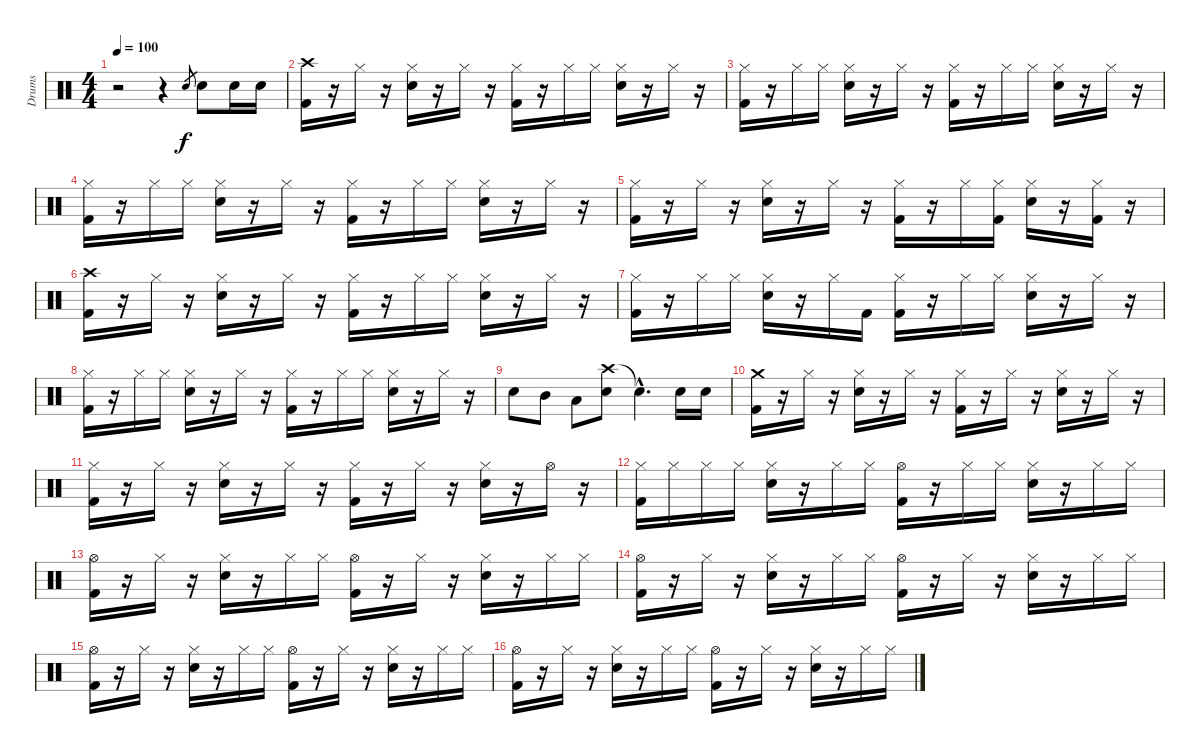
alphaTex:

\track ("Drums" "Drums") {instrument percussion}
\staff {score}
\articulation defaults
\ts (4 4)
\tempo 100
\clef neutral
\ks c
r.2{dy f} r.4 "Snare (hit) 2".8{gr} "Snare (hit) 2".8 "Snare (hit) 2".16 "Snare (hit) 2".16 |
("Crash high (hit)" "Kick (hit) 2").16 r.16 "Hi-Hat (closed)".16 r.16 ("Hi-Hat (closed)" "Snare (hit) 2").16 r.16 "Hi-Hat (closed)".16 r.16 ("Hi-Hat (closed)" "Kick (hit) 2").16 r.16 "Hi-Hat (closed)".16 "Hi-Hat (closed)".16 ("Hi-Hat (closed)" "Snare (hit) 2").16 r.16 "Hi-Hat (closed)".16 r.16 |
("Hi-Hat (closed)" "Kick (hit) 2").16 r.16 "Hi-Hat (closed)".16 "Hi-Hat (closed)".16 ("Hi-Hat (closed)" "Snare (hit) 2").16 r.16 "Hi-Hat (closed)".16 r.16 ("Hi-Hat (closed)" "Kick (hit) 2").16 r.16 "Hi-Hat (closed)".16 "Hi-Hat (closed)".16 ("Hi-Hat (closed)" "Snare (hit) 2").16 r.16 "Hi-Hat (closed)".16 r.16 |
("Hi-Hat (closed)" "Kick (hit) 2").16 r.16 "Hi-Hat (closed)".16 "Hi-Hat (closed)".16 ("Hi-Hat (closed)" "Snare (hit) 2").16 r.16 "Hi-Hat (closed)".16 r.16 ("Hi-Hat (closed)" "Kick (hit) 2").16 r.16 "Hi-Hat (closed)".16 "Hi-Hat (closed)".16 ("Hi-Hat (closed)" "Snare (hit) 2").16 r.16 "Hi-Hat (closed)".16 r.16 |
("Hi-Hat (closed)" "Kick (hit) 2").16 r.16 "Hi-Hat (closed)".16 r.16 ("Hi-Hat (closed)" "Snare (hit) 2").16 r.16 "Hi-Hat (closed)".16 r.16 ("Hi-Hat (closed)" "Kick (hit) 2").16 r.16 "Hi-Hat (closed)".16 ("Hi-Hat (closed)" "Kick (hit) 2").16 ("Hi-Hat (closed)" "Snare (hit) 2").16 r.16 ("Hi-Hat (closed)" "Kick (hit) 2").16 r.16 |
("Crash high (hit)" "Kick (hit) 2").16 r.16 "Hi-Hat (closed)".16 r.16 ("Hi-Hat (closed)" "Snare (hit) 2").16 r.16 "Hi-Hat (closed)".16 r.16 ("Hi-Hat (closed)" "Kick (hit) 2").16 r.16 "Hi-Hat (closed)".16 "Hi-Hat (closed)".16 ("Hi-Hat (closed)" "Snare (hit) 2").16 r.16 "Hi-Hat (closed)".16 r.16 |
("Hi-Hat (closed)" "Kick (hit) 2").16 r.16 "Hi-Hat (closed)".16 "Hi-Hat (closed)".16 ("Hi-Hat (closed)" "Snare (hit) 2").16 r.16 "Hi-Hat (closed)".16 "Kick (hit) 2".16 ("Hi-Hat (closed)" "Kick (hit) 2").16 r.16 "Hi-Hat (closed)".16 "Hi-Hat (closed)".16 ("Hi-Hat (closed)" "Snare (hit) 2").16 r.16 "Hi-Hat (closed)".16 r.16 |
("Hi-Hat (closed)" "Kick (hit) 2").16 r.16 "Hi-Hat (closed)".16 "Hi-Hat (closed)".16 ("Hi-Hat (closed)" "Snare (hit) 2").16 r.16 "Hi-Hat (closed)".16 r.16 ("Hi-Hat (closed)" "Kick (hit) 2").16 r.16 "Hi-Hat (closed)".16 "Hi-Hat (closed)".16 ("Hi-Hat (closed)" "Snare (hit) 2").16 r.16 "Hi-Hat (closed)".16 r.16 |
"Snare (hit) 2".8 "Mid Tom (hit)".8 "Low Tom (hit)".8 ("Crash high (hit)" "Snare (hit) 2").8 "Snare (hit)"{hac t}.4{d} "Snare (hit) 2".16 "Snare (hit) 2".16 |
("Crash medium (hit)" "Kick (hit) 2").16 r.16 "Hi-Hat (closed)".16 r.16 ("Hi-Hat (closed)" "Snare (hit) 2").16 r.16 "Hi-Hat (closed)".16 r.16 ("Hi-Hat (closed)" "Kick (hit) 2").16 r.16 "Hi-Hat (closed)".16 r.16 ("Hi-Hat (closed)" "Snare (hit) 2").16 r.16 "Hi-Hat (closed)".16 r.16 |
("Hi-Hat (closed)" "Kick (hit) 2").16 r.16 "Hi-Hat (closed)".16 r.16 ("Hi-Hat (closed)" "Snare (hit) 2").16 r.16 "Hi-Hat (closed)".16 r.16 ("Hi-Hat (closed)" "Kick (hit) 2").16 r.16 "Hi-Hat (closed)".16 r.16 ("Hi-Hat (closed)" "Snare (hit) 2").16 r.16 "Hi-Hat (open)".16 r.16 |
("Hi-Hat (closed)" "Kick (hit) 2").16 "Hi-Hat (closed)".16 "Hi-Hat (closed)".16 "Hi-Hat (closed)".16 ("Hi-Hat (closed)" "Snare (hit) 2").16 r.16 "Hi-Hat (closed)".16 "Hi-Hat (closed)".16 ("Hi-Hat (open)" "Kick (hit) 2").16 r.16 "Hi-Hat (closed)".16 "Hi-Hat (closed)".16 ("Hi-Hat (closed)" "Snare (hit) 2").16 r.16 "Hi-Hat (closed)".16 "Hi-Hat (closed)".16 |
("Hi-Hat (open)" "Kick (hit) 2").16 r.16 "Hi-Hat (closed)".16 r.16 ("Hi-Hat (closed)" "Snare (hit) 2").16 r.16 "Hi-Hat (closed)".16 "Hi-Hat (closed)".16 ("Hi-Hat (open)" "Kick (hit) 2").16 r.16 "Hi-Hat (closed)".16 r.16 ("Hi-Hat (closed)" "Snare (hit) 2").16 r.16 "Hi-Hat (closed)".16 "Hi-Hat (closed)".16 |
("Hi-Hat (open)" "Kick (hit) 2").16 r.16 "Hi-Hat (closed)".16 r.16 ("Hi-Hat (closed)" "Snare (hit) 2").16 r.16 "Hi-Hat (closed)".16 "Hi-Hat (closed)".16 ("Hi-Hat (open)" "Kick (hit) 2").16 r.16 "Hi-Hat (closed)".16 r.16 ("Hi-Hat (closed)" "Snare (hit) 2").16 r.16 "Hi-Hat (closed)".16 "Hi-Hat (closed)".16 |
("Hi-Hat (open)" "Kick (hit) 2").16 r.16 "Hi-Hat (closed)".16 r.16 ("Hi-Hat (closed)" "Snare (hit) 2").16 r.16 "Hi-Hat (closed)".16 "Hi-Hat (closed)".16 ("Hi-Hat (open)" "Kick (hit) 2").16 r.16 "Hi-Hat (closed)".16 r.16 ("Hi-Hat (closed)" "Snare (hit) 2").16 r.16 "Hi-Hat (closed)".16 "Hi-Hat (closed)".16 |
("Hi-Hat (open)" "Kick (hit) 2").16 r.16 "Hi-Hat (closed)".16 r.16 ("Hi-Hat (closed)" "Snare (hit) 2").16 r.16 "Hi-Hat (closed)".16 "Hi-Hat (closed)".16 ("Hi-Hat (open)" "Kick (hit) 2").16 r.16 "Hi-Hat (closed)".16 r.16 ("Hi-Hat (closed)" "Snare (hit) 2").16 r.16 "Hi-Hat (closed)".16 "Hi-Hat (closed)".16
